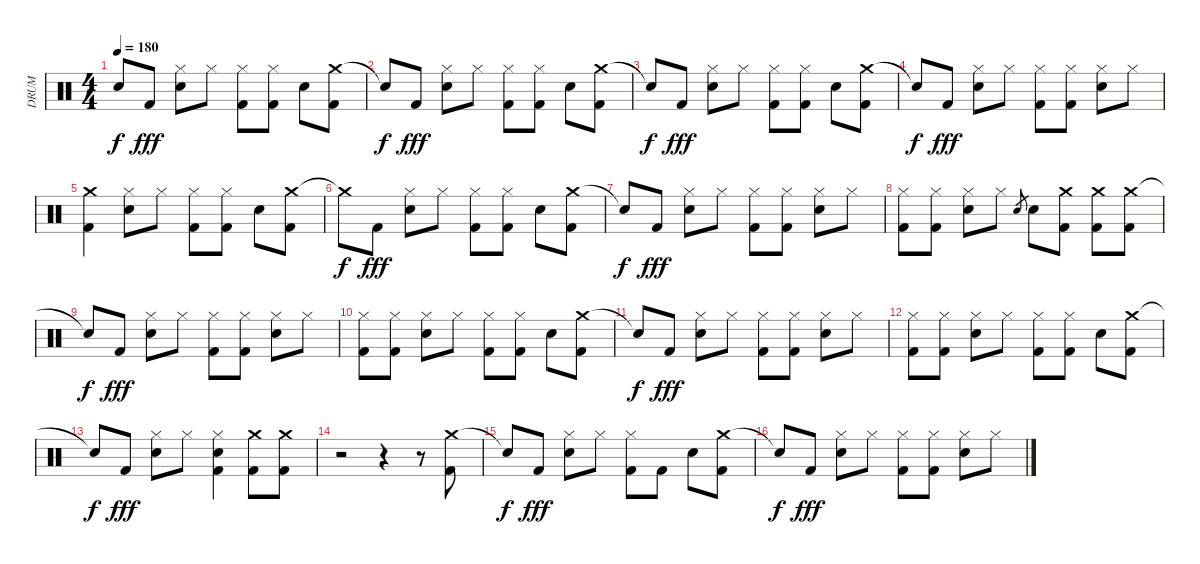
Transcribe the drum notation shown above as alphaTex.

\track ("DRUM" "DRUM") {instrument percussion}
\staff {score}
\articulation defaults
\ts (4 4)
\tempo 180
\clef neutral
\ks c "Snare (hit)"{t}.8{dy f} "Kick (hit) 2".8{dy fff}
("Hi-Hat (closed)" "Snare (hit) 2").8 "Hi-Hat (closed)".8 ("Hi-Hat (closed)" "Kick (hit) 2").8 ("Hi-Hat (closed)" "Kick (hit) 2").8 "Snare (hit) 2".8 ("Crash medium (hit)" "Kick (hit) 2").8 |
"Snare (hit)"{t}.8{dy f} "Kick (hit) 2".8{dy fff} ("Hi-Hat (closed)" "Snare (hit) 2").8 "Hi-Hat (closed)".8 ("Hi-Hat (closed)" "Kick (hit) 2").8 ("Hi-Hat (closed)" "Kick (hit) 2").8 "Snare (hit) 2".8 ("Crash medium (hit)" "Kick (hit) 2").8 |
"Snare (hit)"{t}.8{dy f} "Kick (hit) 2".8{dy fff} ("Hi-Hat (closed)" "Snare (hit) 2").8 "Hi-Hat (closed)".8 ("Hi-Hat (closed)" "Kick (hit) 2").8 ("Hi-Hat (closed)" "Kick (hit) 2").8 "Snare (hit) 2".8 ("Crash medium (hit)" "Kick (hit) 2").8 |
"Snare (hit)"{t}.8{dy f} "Kick (hit) 2".8{dy fff} ("Hi-Hat (closed)" "Snare (hit) 2").8 "Hi-Hat (closed)".8 ("Hi-Hat (closed)" "Kick (hit) 2").8 ("Hi-Hat (closed)" "Kick (hit) 2").8 ("Hi-Hat (closed)" "Snare (hit) 2").8 "Hi-Hat (closed)".8 |
("Crash medium (hit)" "Kick (hit) 2").4 ("Hi-Hat (closed)" "Snare (hit) 2").8 "Hi-Hat (closed)".8 ("Hi-Hat (closed)" "Kick (hit) 2").8 ("Hi-Hat (closed)" "Kick (hit) 2").8 "Snare (hit) 2".8 ("Crash medium (hit)" "Kick (hit) 2").8 |
"Crash medium (hit)"{t}.8{dy f} "Kick (hit) 2".8{dy fff} ("Hi-Hat (closed)" "Snare (hit) 2").8 "Hi-Hat (closed)".8 ("Hi-Hat (closed)" "Kick (hit) 2").8 ("Hi-Hat (closed)" "Kick (hit) 2").8 "Snare (hit) 2".8 ("Crash medium (hit)" "Kick (hit) 2").8 |
"Snare (hit)"{t}.8{dy f} "Kick (hit) 2".8{dy fff} ("Hi-Hat (closed)" "Snare (hit) 2").8 "Hi-Hat (closed)".8 ("Hi-Hat (closed)" "Kick (hit) 2").8 ("Hi-Hat (closed)" "Kick (hit) 2").8 ("Hi-Hat (closed)" "Snare (hit) 2").8 "Hi-Hat (closed)".8 |
("Hi-Hat (closed)" "Kick (hit) 2").8 ("Hi-Hat (closed)" "Kick (hit) 2").8 ("Hi-Hat (closed)" "Snare (hit) 2").8 "Hi-Hat (closed)".8 "Snare (hit) 2".8{gr} "Snare (hit) 2".8 ("Crash medium (hit)" "Kick (hit) 2").8 ("Crash medium (hit)" "Kick (hit) 2").8 ("Crash medium (hit)" "Kick (hit) 2").8 |
"Snare (hit)"{t}.8{dy f} "Kick (hit) 2".8{dy fff} ("Hi-Hat (closed)" "Snare (hit) 2").8 "Hi-Hat (closed)".8 ("Hi-Hat (closed)" "Kick (hit) 2").8 ("Hi-Hat (closed)" "Kick (hit) 2").8 ("Hi-Hat (closed)" "Snare (hit) 2").8 "Hi-Hat (closed)".8 |
("Hi-Hat (closed)" "Kick (hit) 2").8 ("Hi-Hat (closed)" "Kick (hit) 2").8 ("Hi-Hat (closed)" "Snare (hit) 2").8 "Hi-Hat (closed)".8 ("Hi-Hat (closed)" "Kick (hit) 2").8 ("Hi-Hat (closed)" "Kick (hit) 2").8 "Snare (hit) 2".8 ("Crash medium (hit)" "Kick (hit) 2").8 |
"Snare (hit)"{t}.8{dy f} "Kick (hit) 2".8{dy fff} ("Hi-Hat (closed)" "Snare (hit) 2").8 "Hi-Hat (closed)".8 ("Hi-Hat (closed)" "Kick (hit) 2").8 ("Hi-Hat (closed)" "Kick (hit) 2").8 ("Hi-Hat (closed)" "Snare (hit) 2").8 "Hi-Hat (closed)".8 |
("Hi-Hat (closed)" "Kick (hit) 2").8 ("Hi-Hat (closed)" "Kick (hit) 2").8 ("Hi-Hat (closed)" "Snare (hit) 2").8 "Hi-Hat (closed)".8 ("Hi-Hat (closed)" "Kick (hit) 2").8 ("Hi-Hat (closed)" "Kick (hit) 2").8 "Snare (hit) 2".8 ("Crash medium (hit)" "Kick (hit) 2").8 |
"Snare (hit)"{t}.8{dy f} "Kick (hit) 2".8{dy fff} ("Hi-Hat (closed)" "Snare (hit) 2").8 "Hi-Hat (closed)".8 ("Hi-Hat (closed)" "Snare (hit) 2" "Kick (hit) 2").4 ("Crash medium (hit)" "Kick (hit) 2").8 ("Crash medium (hit)" "Kick (hit) 2").8 |
r.2 r.4 r.8 ("Crash medium (hit)" "Kick (hit) 2").8 |
"Snare (hit)"{t}.8{dy f} "Kick (hit) 2".8{dy fff} ("Hi-Hat (closed)" "Snare (hit) 2").8 "Hi-Hat (closed)".8 ("Hi-Hat (closed)" "Kick (hit) 2").8 "Kick (hit) 2".8 "Snare (hit) 2".8 ("Crash medium (hit)" "Kick (hit) 2").8 |
"Snare (hit)"{t}.8{dy f} "Kick (hit) 2".8{dy fff} ("Hi-Hat (closed)" "Snare (hit) 2").8 "Hi-Hat (closed)".8 ("Hi-Hat (closed)" "Kick (hit) 2").8 ("Hi-Hat (closed)" "Kick (hit) 2").8 ("Hi-Hat (closed)" "Snare (hit) 2").8 "Hi-Hat (closed)".8
